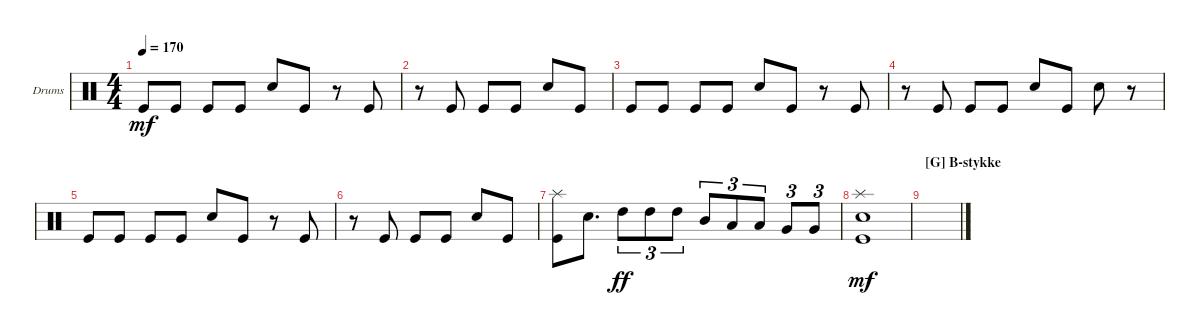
\defaultSystemsLayout 4
\bracketExtendMode groupsimilarinstruments
\firstSystemTrackNameOrientation horizontal
\otherSystemsTrackNameOrientation horizontal
\track ("Ray" "Drums") {instrument percussion}
\staff {score}
\articulation defaults
\ts (4 4)
\tempo 170
\clef neutral
\ks c "Kick (hit)".8{dy mf} "Kick (hit)".8 "Kick (hit)".8 "Kick (hit)".8 "Snare (hit) 2".8 "Kick (hit)".8
r.8 "Kick (hit)".8 |
r.8 "Kick (hit)".8 "Kick (hit)".8 "Kick (hit)".8 "Snare (hit) 2".8 "Kick (hit)".8 |
"Kick (hit)".8 "Kick (hit)".8 "Kick (hit)".8 "Kick (hit)".8 "Snare (hit) 2".8 "Kick (hit)".8 r.8 "Kick (hit)".8 |
r.8 "Kick (hit)".8 "Kick (hit)".8 "Kick (hit)".8 "Snare (hit) 2".8 "Kick (hit)".8 "Snare (hit) 2".8 r.8 |
"Kick (hit)".8 "Kick (hit)".8 "Kick (hit)".8 "Kick (hit)".8 "Snare (hit) 2".8 "Kick (hit)".8 r.8 "Kick (hit)".8 |
r.8 "Kick (hit)".8 "Kick (hit)".8 "Kick (hit)".8 "Snare (hit) 2".8 "Kick (hit)".8 |
("Splash (hit)" "Kick (hit)").8 "Snare (hit) 2".8{d} "High Tom (hit)".8{tu (3 2) dy ff} "High Tom (hit)".8{tu (3 2)} "High Tom (hit)".8{tu (3 2)} "Mid Tom (hit)".8{tu (3 2)} "Low Tom (hit)".8{tu (3 2)} "Low Tom (hit)".8{tu (3 2)} "Very Low Tom (hit)".8{tu (3 2)} "Very Low Tom (hit)".8{tu (3 2)} |
("Kick (hit)" "Snare (hit) 2" "Splash (hit)").1{dy mf} |
\section ("G" "B-stykke")
